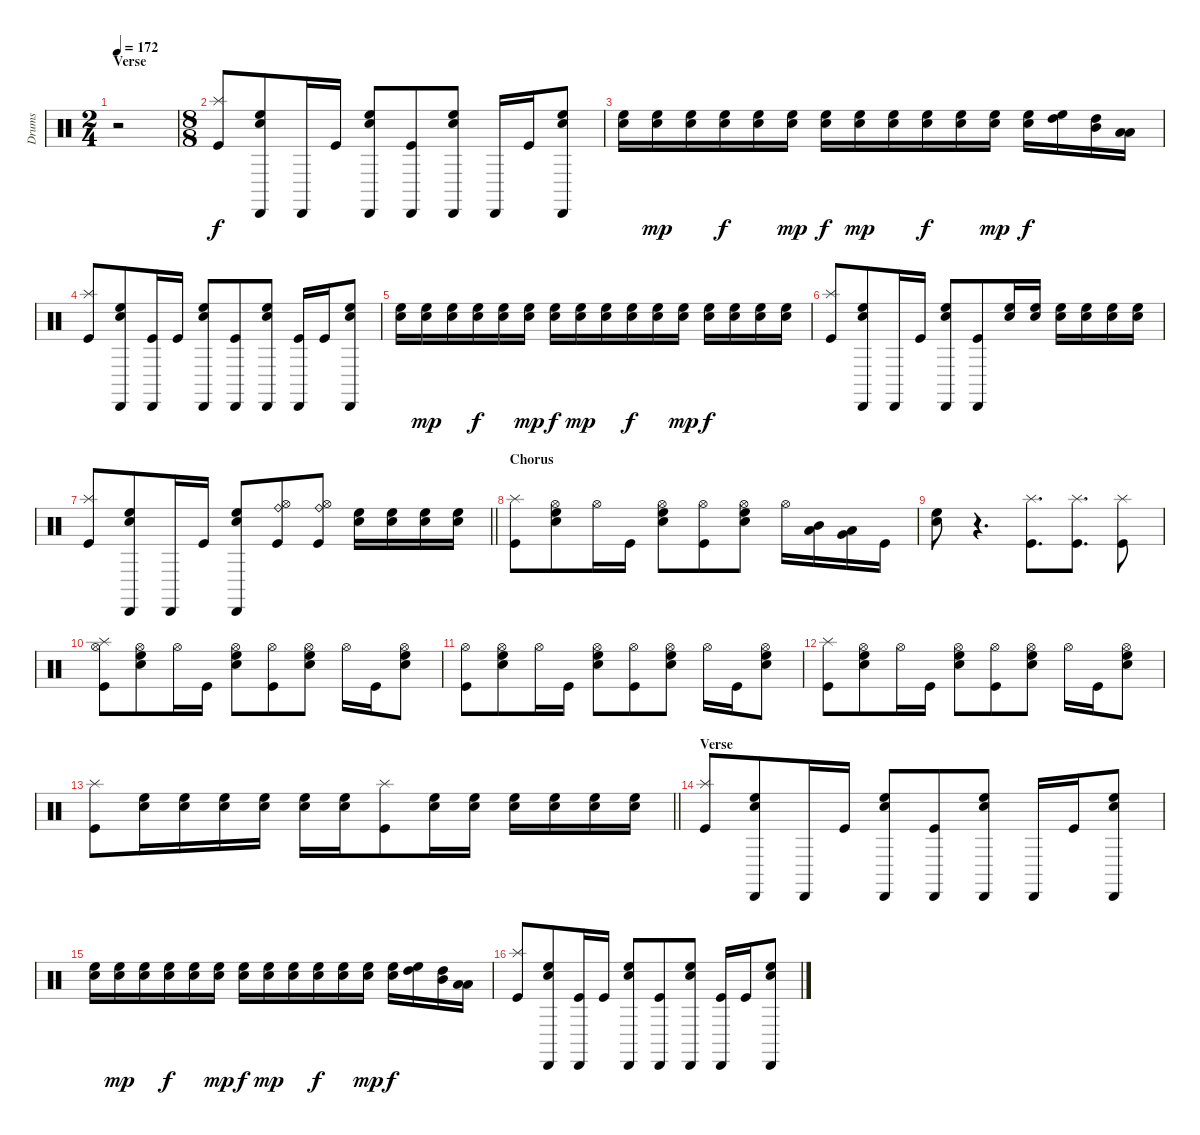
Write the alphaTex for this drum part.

\track ("Drums" "Drums") {instrument percussion}
\staff {score}
\articulation defaults
\ts (2 4)
\section ("" "Verse")
\tempo 172
\clef neutral
\ks c
r.2{dy f} |
\ts (8 8)
("Splash (hit)" "Kick (hit)").8 ("Cabasa (hit)" "High Floor Tom (hit)" "Electric Snare (hit)").8 "Cabasa (hit)".16 "Kick (hit)".16 ("Cabasa (hit)" "High Floor Tom (hit)" "Electric Snare (hit)").8 ("Cabasa (hit)" "Kick (hit)").8 ("Cabasa (hit)" "High Floor Tom (hit)" "Electric Snare (hit)").8 "Cabasa (hit)".16 "Kick (hit)".16 ("Cabasa (hit)" "High Floor Tom (hit)" "Electric Snare (hit)").8 |
("High Floor Tom (hit)" "Electric Snare (hit)").16 ("Electric Snare (hit)" "High Floor Tom (hit)").16{dy mp} ("Electric Snare (hit)" "High Floor Tom (hit)").16 ("High Floor Tom (hit)" "Electric Snare (hit)").16{dy f} ("High Floor Tom (hit)" "Electric Snare (hit)").16 ("Electric Snare (hit)" "High Floor Tom (hit)").16{dy mp} ("High Floor Tom (hit)" "Electric Snare (hit)").16{dy f} ("Electric Snare (hit)" "High Floor Tom (hit)").16{dy mp} ("Electric Snare (hit)" "High Floor Tom (hit)").16 ("High Floor Tom (hit)" "Electric Snare (hit)").16{dy f} ("High Floor Tom (hit)" "Electric Snare (hit)").16 ("Electric Snare (hit)" "High Floor Tom (hit)").16{dy mp} ("High Floor Tom (hit)" "Electric Snare (hit)").16{dy f} ("High Tom (hit)" "High Floor Tom (hit)").16 ("Mid Tom (hit)" "High Tom (hit)").16 ("Low Floor Tom (hit)" "Low Tom (hit)").16 |
("Splash (hit)" "Kick (hit)").8 ("Cabasa (hit)" "High Floor Tom (hit)" "Electric Snare (hit)").8 ("Cabasa (hit)" "Kick (hit)").16 "Kick (hit)".16 ("Cabasa (hit)" "High Floor Tom (hit)" "Electric Snare (hit)").8 ("Cabasa (hit)" "Kick (hit)").8 ("Cabasa (hit)" "High Floor Tom (hit)" "Electric Snare (hit)").8 ("Cabasa (hit)" "Kick (hit)").16 "Kick (hit)".16 ("Cabasa (hit)" "High Floor Tom (hit)" "Electric Snare (hit)").8 |
("High Floor Tom (hit)" "Electric Snare (hit)").16 ("Electric Snare (hit)" "High Floor Tom (hit)").16{dy mp} ("Electric Snare (hit)" "High Floor Tom (hit)").16 ("High Floor Tom (hit)" "Electric Snare (hit)").16{dy f} ("High Floor Tom (hit)" "Electric Snare (hit)").16 ("Electric Snare (hit)" "High Floor Tom (hit)").16{dy mp} ("High Floor Tom (hit)" "Electric Snare (hit)").16{dy f} ("Electric Snare (hit)" "High Floor Tom (hit)").16{dy mp} ("Electric Snare (hit)" "High Floor Tom (hit)").16 ("High Floor Tom (hit)" "Electric Snare (hit)").16{dy f} ("High Floor Tom (hit)" "Electric Snare (hit)").16 ("Electric Snare (hit)" "High Floor Tom (hit)").16{dy mp} ("High Floor Tom (hit)" "Electric Snare (hit)").16{dy f} ("High Floor Tom (hit)" "Electric Snare (hit)").16 ("High Floor Tom (hit)" "Electric Snare (hit)").16 ("High Floor Tom (hit)" "Electric Snare (hit)").16 |
("Splash (hit)" "Kick (hit)").8 ("Cabasa (hit)" "High Floor Tom (hit)" "Electric Snare (hit)").8 "Cabasa (hit)".16 "Kick (hit)".16 ("Cabasa (hit)" "High Floor Tom (hit)" "Electric Snare (hit)").8 ("Cabasa (hit)" "Kick (hit)").8 ("High Floor Tom (hit)" "Electric Snare (hit)").16 ("High Floor Tom (hit)" "Electric Snare (hit)").16 ("High Floor Tom (hit)" "Electric Snare (hit)").16 ("High Floor Tom (hit)" "Electric Snare (hit)").16 ("High Floor Tom (hit)" "Electric Snare (hit)").16 ("High Floor Tom (hit)" "Electric Snare (hit)").16 |
\barLineRight lightlight
("Splash (hit)" "Kick (hit)").8 ("Cabasa (hit)" "High Floor Tom (hit)" "Electric Snare (hit)").8 "Cabasa (hit)".16 "Kick (hit)".16 ("Cabasa (hit)" "High Floor Tom (hit)" "Electric Snare (hit)").8 ("Ride (bell)" "Hi-Hat (open)" "Kick (hit)").8 ("Ride (bell)" "Hi-Hat (open)" "Kick (hit)").8 ("High Floor Tom (hit)" "Electric Snare (hit)").16 ("High Floor Tom (hit)" "Electric Snare (hit)").16 ("High Floor Tom (hit)" "Electric Snare (hit)").16 ("High Floor Tom (hit)" "Electric Snare (hit)").16 |
\section ("" "Chorus")
("Splash (hit)" "Kick (hit)").8 ("Hi-Hat (open)" "High Floor Tom (hit)" "Electric Snare (hit)").8 "Hi-Hat (open)".16 "Kick (hit)".16 ("Hi-Hat (open)" "High Floor Tom (hit)" "Electric Snare (hit)").8 ("Hi-Hat (open)" "Kick (hit)").8 ("Hi-Hat (open)" "High Floor Tom (hit)" "Electric Snare (hit)").8 "Hi-Hat (open)".16 ("Low Tom (hit)" "Mid Tom (hit)").16 ("Very Low Tom (hit)" "Low Floor Tom (hit)").16 "Kick (hit)".16 |
("High Floor Tom (hit)" "Electric Snare (hit)").8 r.4{d} ("Splash (hit)" "Kick (hit)").8{d} ("Splash (hit)" "Kick (hit)").8{d} ("Splash (hit)" "Kick (hit)").8 |
("Splash (hit)" "Hi-Hat (open)" "Kick (hit)").8 ("Hi-Hat (open)" "High Floor Tom (hit)" "Electric Snare (hit)").8 "Hi-Hat (open)".16 "Kick (hit)".16 ("Hi-Hat (open)" "High Floor Tom (hit)" "Electric Snare (hit)").8 ("Hi-Hat (open)" "Kick (hit)").8 ("Hi-Hat (open)" "High Floor Tom (hit)" "Electric Snare (hit)").8 "Hi-Hat (open)".16 "Kick (hit)".16 ("Hi-Hat (open)" "High Floor Tom (hit)" "Electric Snare (hit)").8 |
("Hi-Hat (open)" "Kick (hit)").8 ("Hi-Hat (open)" "High Floor Tom (hit)" "Electric Snare (hit)").8 "Hi-Hat (open)".16 "Kick (hit)".16 ("Hi-Hat (open)" "High Floor Tom (hit)" "Electric Snare (hit)").8 ("Hi-Hat (open)" "Kick (hit)").8 ("Hi-Hat (open)" "High Floor Tom (hit)" "Electric Snare (hit)").8 "Hi-Hat (open)".16 "Kick (hit)".16 ("Hi-Hat (open)" "High Floor Tom (hit)" "Electric Snare (hit)").8 |
("Splash (hit)" "Kick (hit)").8 ("Hi-Hat (open)" "High Floor Tom (hit)" "Electric Snare (hit)").8 "Hi-Hat (open)".16 "Kick (hit)".16 ("Hi-Hat (open)" "High Floor Tom (hit)" "Electric Snare (hit)").8 ("Hi-Hat (open)" "Kick (hit)").8 ("Hi-Hat (open)" "High Floor Tom (hit)" "Electric Snare (hit)").8 "Hi-Hat (open)".16 "Kick (hit)".16 ("Hi-Hat (open)" "High Floor Tom (hit)" "Electric Snare (hit)").8 |
\barLineRight lightlight
("Splash (hit)" "Kick (hit)").8 ("High Floor Tom (hit)" "Electric Snare (hit)").16 ("High Floor Tom (hit)" "Electric Snare (hit)").16 ("High Floor Tom (hit)" "Electric Snare (hit)").16 ("High Floor Tom (hit)" "Electric Snare (hit)").16 ("High Floor Tom (hit)" "Electric Snare (hit)").16 ("High Floor Tom (hit)" "Electric Snare (hit)").16 ("Splash (hit)" "Kick (hit)").8 ("High Floor Tom (hit)" "Electric Snare (hit)").16 ("High Floor Tom (hit)" "Electric Snare (hit)").16 ("High Floor Tom (hit)" "Electric Snare (hit)").16 ("High Floor Tom (hit)" "Electric Snare (hit)").16 ("High Floor Tom (hit)" "Electric Snare (hit)").16 ("High Floor Tom (hit)" "Electric Snare (hit)").16 |
\section ("" "Verse")
("Splash (hit)" "Kick (hit)").8 ("Cabasa (hit)" "High Floor Tom (hit)" "Electric Snare (hit)").8 "Cabasa (hit)".16 "Kick (hit)".16 ("Cabasa (hit)" "High Floor Tom (hit)" "Electric Snare (hit)").8 ("Cabasa (hit)" "Kick (hit)").8 ("Cabasa (hit)" "High Floor Tom (hit)" "Electric Snare (hit)").8 "Cabasa (hit)".16 "Kick (hit)".16 ("Cabasa (hit)" "High Floor Tom (hit)" "Electric Snare (hit)").8 |
("High Floor Tom (hit)" "Electric Snare (hit)").16 ("Electric Snare (hit)" "High Floor Tom (hit)").16{dy mp} ("Electric Snare (hit)" "High Floor Tom (hit)").16 ("High Floor Tom (hit)" "Electric Snare (hit)").16{dy f} ("High Floor Tom (hit)" "Electric Snare (hit)").16 ("Electric Snare (hit)" "High Floor Tom (hit)").16{dy mp} ("High Floor Tom (hit)" "Electric Snare (hit)").16{dy f} ("Electric Snare (hit)" "High Floor Tom (hit)").16{dy mp} ("Electric Snare (hit)" "High Floor Tom (hit)").16 ("High Floor Tom (hit)" "Electric Snare (hit)").16{dy f} ("High Floor Tom (hit)" "Electric Snare (hit)").16 ("Electric Snare (hit)" "High Floor Tom (hit)").16{dy mp} ("High Floor Tom (hit)" "Electric Snare (hit)").16{dy f} ("High Tom (hit)" "High Floor Tom (hit)").16 ("Mid Tom (hit)" "High Tom (hit)").16 ("Low Floor Tom (hit)" "Low Tom (hit)").16 |
("Splash (hit)" "Kick (hit)").8 ("Cabasa (hit)" "High Floor Tom (hit)" "Electric Snare (hit)").8 ("Cabasa (hit)" "Kick (hit)").16 "Kick (hit)".16 ("Cabasa (hit)" "High Floor Tom (hit)" "Electric Snare (hit)").8 ("Cabasa (hit)" "Kick (hit)").8 ("Cabasa (hit)" "High Floor Tom (hit)" "Electric Snare (hit)").8 ("Cabasa (hit)" "Kick (hit)").16 "Kick (hit)".16 ("Cabasa (hit)" "High Floor Tom (hit)" "Electric Snare (hit)").8
